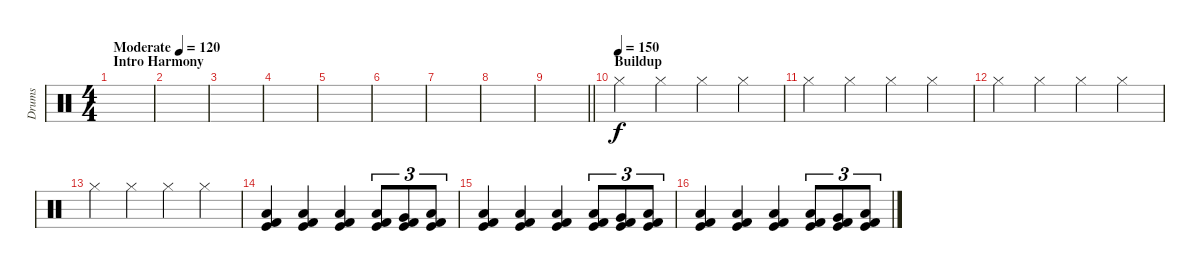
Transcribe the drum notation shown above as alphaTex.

\track ("Drums" "Drums") {instrument percussion}
\staff {score}
\articulation defaults
\ts (4 4)
\section ("" "Intro Harmony")
\tempo (120 "Moderate")
\clef neutral
\ks c
|
|
|
|
|
|
|
|
\barLineRight lightlight
|
\section ("" "Buildup")
\tempo (150)
"Hi-Hat (closed)".4 "Hi-Hat (closed)".4 "Hi-Hat (closed)".4 "Hi-Hat (closed)".4 |
"Hi-Hat (closed)".4 "Hi-Hat (closed)".4 "Hi-Hat (closed)".4 "Hi-Hat (closed)".4 |
"Hi-Hat (closed)".4 "Hi-Hat (closed)".4 "Hi-Hat (closed)".4 "Hi-Hat (closed)".4 |
"Hi-Hat (closed)".4 "Hi-Hat (closed)".4 "Hi-Hat (closed)".4 "Hi-Hat (closed)".4 |
("Low Floor Tom (hit)" "Kick (hit) 2" "Kick (hit)").4 ("Low Floor Tom (hit)" "Kick (hit) 2" "Kick (hit)").4 ("Low Floor Tom (hit)" "Kick (hit) 2" "Kick (hit)").4 ("Low Tom (hit)" "Kick (hit) 2" "Kick (hit)").8{tu (3 2)} ("Very Low Tom (hit)" "Kick (hit) 2" "Kick (hit)").8{tu (3 2)} ("Low Floor Tom (hit)" "Kick (hit) 2" "Kick (hit)").8{tu (3 2)} |
("Low Floor Tom (hit)" "Kick (hit) 2" "Kick (hit)").4 ("Low Floor Tom (hit)" "Kick (hit) 2" "Kick (hit)").4 ("Low Floor Tom (hit)" "Kick (hit) 2" "Kick (hit)").4 ("Low Floor Tom (hit)" "Kick (hit) 2" "Kick (hit)").8{tu (3 2)} ("Very Low Tom (hit)" "Kick (hit) 2" "Kick (hit)").8{tu (3 2)} ("Low Tom (hit)" "Kick (hit) 2" "Kick (hit)").8{tu (3 2)} |
("Low Floor Tom (hit)" "Kick (hit) 2" "Kick (hit)").4 ("Low Floor Tom (hit)" "Kick (hit) 2" "Kick (hit)").4 ("Low Floor Tom (hit)" "Kick (hit) 2" "Kick (hit)").4 ("Low Tom (hit)" "Kick (hit) 2" "Kick (hit)").8{tu (3 2)} ("Very Low Tom (hit)" "Kick (hit) 2" "Kick (hit)").8{tu (3 2)} ("Low Floor Tom (hit)" "Kick (hit) 2" "Kick (hit)").8{tu (3 2)}
